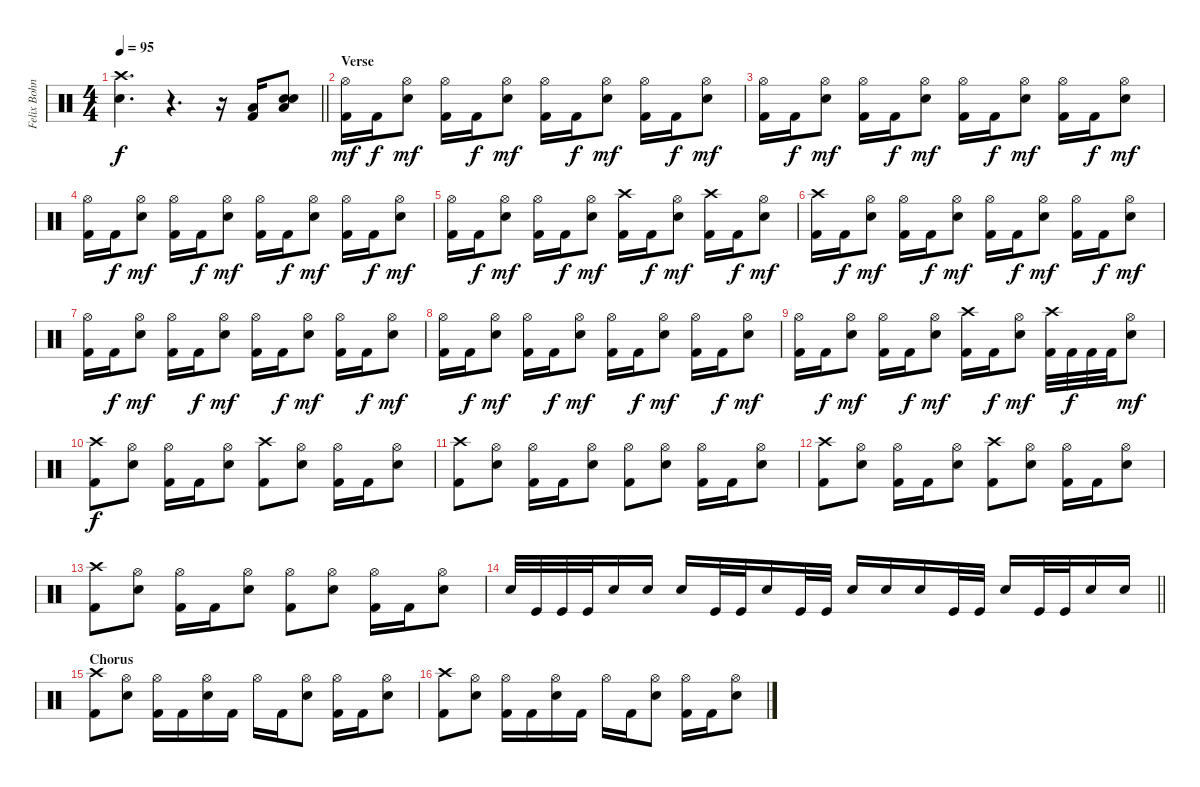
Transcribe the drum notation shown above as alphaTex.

\track ("Felix Bohnke" "Felix Bohn") {instrument percussion}
\staff {score}
\articulation defaults
\ts (4 4)
\tempo 95
\clef neutral
\barLineRight lightlight
\ks c
("Crash high (hit)" "Snare (hit) 2").4{d dy f} r.4{d} r.16 ("Low Tom (hit)" "Kick (hit) 2").16 ("Low Tom (hit)" "Snare (hit) 2" "Snare (hit) 2").8{bd 60} |
\section ("" "Verse")
("Hi-Hat (open)" "Kick (hit) 2").16{dy mf} "Kick (hit) 2".16{dy f} ("Hi-Hat (open)" "Snare (hit) 2").8{dy mf} ("Hi-Hat (open)" "Kick (hit) 2").16 "Kick (hit) 2".16{dy f} ("Hi-Hat (open)" "Snare (hit) 2").8{dy mf} ("Hi-Hat (open)" "Kick (hit) 2").16 "Kick (hit) 2".16{dy f} ("Hi-Hat (open)" "Snare (hit) 2").8{dy mf} ("Hi-Hat (open)" "Kick (hit) 2").16 "Kick (hit) 2".16{dy f} ("Hi-Hat (open)" "Snare (hit) 2").8{dy mf} |
("Hi-Hat (open)" "Kick (hit) 2").16 "Kick (hit) 2".16{dy f} ("Hi-Hat (open)" "Snare (hit) 2").8{dy mf} ("Hi-Hat (open)" "Kick (hit) 2").16 "Kick (hit) 2".16{dy f} ("Hi-Hat (open)" "Snare (hit) 2").8{dy mf} ("Hi-Hat (open)" "Kick (hit) 2").16 "Kick (hit) 2".16{dy f} ("Hi-Hat (open)" "Snare (hit) 2").8{dy mf} ("Hi-Hat (open)" "Kick (hit) 2").16 "Kick (hit) 2".16{dy f} ("Hi-Hat (open)" "Snare (hit) 2").8{dy mf} |
("Hi-Hat (open)" "Kick (hit) 2").16 "Kick (hit) 2".16{dy f} ("Hi-Hat (open)" "Snare (hit) 2").8{dy mf} ("Hi-Hat (open)" "Kick (hit) 2").16 "Kick (hit) 2".16{dy f} ("Hi-Hat (open)" "Snare (hit) 2").8{dy mf} ("Hi-Hat (open)" "Kick (hit) 2").16 "Kick (hit) 2".16{dy f} ("Hi-Hat (open)" "Snare (hit) 2").8{dy mf} ("Hi-Hat (open)" "Kick (hit) 2").16 "Kick (hit) 2".16{dy f} ("Hi-Hat (open)" "Snare (hit) 2").8{dy mf} |
("Hi-Hat (open)" "Kick (hit) 2").16 "Kick (hit) 2".16{dy f} ("Hi-Hat (open)" "Snare (hit) 2").8{dy mf} ("Hi-Hat (open)" "Kick (hit) 2").16 "Kick (hit) 2".16{dy f} ("Hi-Hat (open)" "Snare (hit) 2").8{dy mf} ("Crash high (hit)" "Kick (hit) 2").16 "Kick (hit) 2".16{dy f} ("Hi-Hat (open)" "Snare (hit) 2").8{dy mf} ("Crash high (hit)" "Kick (hit) 2").16 "Kick (hit) 2".16{dy f} ("Hi-Hat (open)" "Snare (hit) 2").8{dy mf} |
("Crash high (hit)" "Kick (hit) 2").16 "Kick (hit) 2".16{dy f} ("Hi-Hat (open)" "Snare (hit) 2").8{dy mf} ("Hi-Hat (open)" "Kick (hit) 2").16 "Kick (hit) 2".16{dy f} ("Hi-Hat (open)" "Snare (hit) 2").8{dy mf} ("Hi-Hat (open)" "Kick (hit) 2").16 "Kick (hit) 2".16{dy f} ("Hi-Hat (open)" "Snare (hit) 2").8{dy mf} ("Hi-Hat (open)" "Kick (hit) 2").16 "Kick (hit) 2".16{dy f} ("Hi-Hat (open)" "Snare (hit) 2").8{dy mf} |
("Hi-Hat (open)" "Kick (hit) 2").16 "Kick (hit) 2".16{dy f} ("Hi-Hat (open)" "Snare (hit) 2").8{dy mf} ("Hi-Hat (open)" "Kick (hit) 2").16 "Kick (hit) 2".16{dy f} ("Hi-Hat (open)" "Snare (hit) 2").8{dy mf} ("Hi-Hat (open)" "Kick (hit) 2").16 "Kick (hit) 2".16{dy f} ("Hi-Hat (open)" "Snare (hit) 2").8{dy mf} ("Hi-Hat (open)" "Kick (hit) 2").16 "Kick (hit) 2".16{dy f} ("Hi-Hat (open)" "Snare (hit) 2").8{dy mf} |
("Hi-Hat (open)" "Kick (hit) 2").16 "Kick (hit) 2".16{dy f} ("Hi-Hat (open)" "Snare (hit) 2").8{dy mf} ("Hi-Hat (open)" "Kick (hit) 2").16 "Kick (hit) 2".16{dy f} ("Hi-Hat (open)" "Snare (hit) 2").8{dy mf} ("Hi-Hat (open)" "Kick (hit) 2").16 "Kick (hit) 2".16{dy f} ("Hi-Hat (open)" "Snare (hit) 2").8{dy mf} ("Hi-Hat (open)" "Kick (hit) 2").16 "Kick (hit) 2".16{dy f} ("Hi-Hat (open)" "Snare (hit) 2").8{dy mf} |
("Hi-Hat (open)" "Kick (hit) 2").16 "Kick (hit) 2".16{dy f} ("Hi-Hat (open)" "Snare (hit) 2").8{dy mf} ("Hi-Hat (open)" "Kick (hit) 2").16 "Kick (hit) 2".16{dy f} ("Hi-Hat (open)" "Snare (hit) 2").8{dy mf} ("Crash high (hit)" "Kick (hit) 2").16 "Kick (hit) 2".16{dy f} ("Hi-Hat (open)" "Snare (hit) 2").8{dy mf} ("Crash high (hit)" "Kick (hit) 2").32 "Kick (hit) 2".32{dy f} "Kick (hit) 2".32 "Kick (hit) 2".32 ("Hi-Hat (open)" "Snare (hit) 2").8{dy mf} |
("Crash high (hit)" "Kick (hit) 2").8{dy f} ("Hi-Hat (open)" "Snare (hit) 2").8 ("Hi-Hat (open)" "Kick (hit) 2").16 "Kick (hit) 2".16 ("Hi-Hat (open)" "Snare (hit) 2").8 ("Crash high (hit)" "Kick (hit) 2").8 ("Hi-Hat (open)" "Snare (hit) 2").8 ("Hi-Hat (open)" "Kick (hit) 2").16 "Kick (hit) 2".16 ("Hi-Hat (open)" "Snare (hit) 2").8 |
("Crash high (hit)" "Kick (hit) 2").8 ("Hi-Hat (open)" "Snare (hit) 2").8 ("Hi-Hat (open)" "Kick (hit) 2").16 "Kick (hit) 2".16 ("Hi-Hat (open)" "Snare (hit) 2").8 ("Hi-Hat (open)" "Kick (hit) 2").8 ("Hi-Hat (open)" "Snare (hit) 2").8 ("Hi-Hat (open)" "Kick (hit) 2").16 "Kick (hit) 2".16 ("Hi-Hat (open)" "Snare (hit) 2").8 |
("Crash high (hit)" "Kick (hit) 2").8 ("Hi-Hat (open)" "Snare (hit) 2").8 ("Hi-Hat (open)" "Kick (hit) 2").16 "Kick (hit) 2".16 ("Hi-Hat (open)" "Snare (hit) 2").8 ("Crash high (hit)" "Kick (hit) 2").8 ("Hi-Hat (open)" "Snare (hit) 2").8 ("Hi-Hat (open)" "Kick (hit) 2").16 "Kick (hit) 2".16 ("Hi-Hat (open)" "Snare (hit) 2").8 |
("Crash high (hit)" "Kick (hit) 2").8 ("Hi-Hat (open)" "Snare (hit) 2").8 ("Hi-Hat (open)" "Kick (hit) 2").16 "Kick (hit) 2".16 ("Hi-Hat (open)" "Snare (hit) 2").8 ("Hi-Hat (open)" "Kick (hit) 2").8 ("Hi-Hat (open)" "Snare (hit) 2").8 ("Hi-Hat (open)" "Kick (hit) 2").16 "Kick (hit) 2".16 ("Hi-Hat (open)" "Snare (hit) 2").8 |
\barLineRight lightlight "Snare (hit) 2".32 "Kick (hit)".32 "Kick (hit)".32 "Kick (hit)".32 "Snare (hit) 2".16 "Snare (hit) 2".16 "Snare (hit) 2".16 "Kick (hit)".32 "Kick (hit)".32 "Snare (hit) 2".16 "Kick (hit)".32 "Kick (hit)".32 "Snare (hit) 2".16 "Snare (hit) 2".16 "Snare (hit) 2".16 "Kick (hit)".32 "Kick (hit)".32 "Snare (hit) 2".16 "Kick (hit)".32 "Kick (hit)".32 "Snare (hit) 2".16 "Snare (hit) 2".16
|
\section ("" "Chorus")
("Crash high (hit)" "Kick (hit) 2").8 ("Hi-Hat (open)" "Snare (hit) 2").8 ("Hi-Hat (open)" "Kick (hit) 2").16 "Kick (hit) 2".16 ("Hi-Hat (open)" "Snare (hit) 2").16 "Kick (hit) 2".16 "Hi-Hat (open)".16 "Kick (hit) 2".16 ("Hi-Hat (open)" "Snare (hit) 2").8 ("Hi-Hat (open)" "Kick (hit) 2").16 "Kick (hit) 2".16 ("Hi-Hat (open)" "Snare (hit) 2").8 |
("Crash high (hit)" "Kick (hit) 2").8 ("Hi-Hat (open)" "Snare (hit) 2").8 ("Hi-Hat (open)" "Kick (hit) 2").16 "Kick (hit) 2".16 ("Hi-Hat (open)" "Snare (hit) 2").16 "Kick (hit) 2".16 "Hi-Hat (open)".16 "Kick (hit) 2".16 ("Hi-Hat (open)" "Snare (hit) 2").8 ("Hi-Hat (open)" "Kick (hit) 2").16 "Kick (hit) 2".16 ("Hi-Hat (open)" "Snare (hit) 2").8
